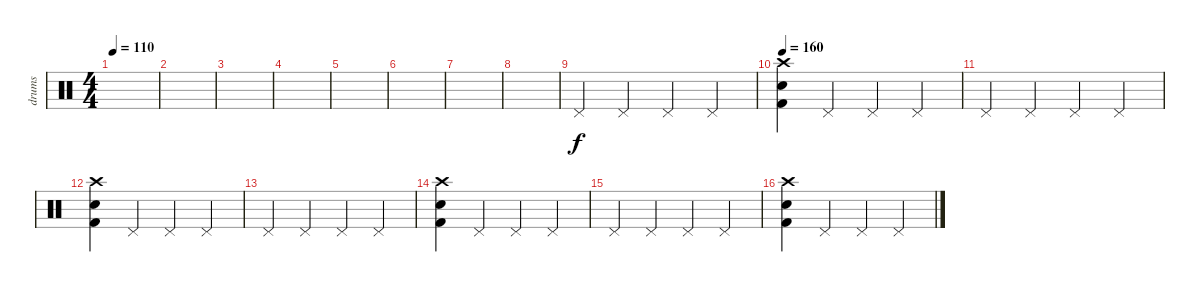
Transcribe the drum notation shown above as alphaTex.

\track ("drums" "drums") {instrument percussion}
\staff {score}
\articulation defaults
\ts (4 4)
\tempo 110
\clef neutral
\ks c
|
|
|
|
|
|
|
|
"Pedal Hi-Hat (hit)".4 "Pedal Hi-Hat (hit)".4 "Pedal Hi-Hat (hit)".4 "Pedal Hi-Hat (hit)".4 |
\tempo 160
("Crash high (hit)" "Electric Snare (hit)" "Kick (hit) 2").4 "Pedal Hi-Hat (hit)".4 "Pedal Hi-Hat (hit)".4 "Pedal Hi-Hat (hit)".4 |
"Pedal Hi-Hat (hit)".4 "Pedal Hi-Hat (hit)".4 "Pedal Hi-Hat (hit)".4 "Pedal Hi-Hat (hit)".4 |
("Crash high (hit)" "Electric Snare (hit)" "Kick (hit) 2").4 "Pedal Hi-Hat (hit)".4 "Pedal Hi-Hat (hit)".4 "Pedal Hi-Hat (hit)".4 |
"Pedal Hi-Hat (hit)".4 "Pedal Hi-Hat (hit)".4 "Pedal Hi-Hat (hit)".4 "Pedal Hi-Hat (hit)".4 |
("Crash high (hit)" "Electric Snare (hit)" "Kick (hit) 2").4 "Pedal Hi-Hat (hit)".4 "Pedal Hi-Hat (hit)".4 "Pedal Hi-Hat (hit)".4 |
"Pedal Hi-Hat (hit)".4 "Pedal Hi-Hat (hit)".4 "Pedal Hi-Hat (hit)".4 "Pedal Hi-Hat (hit)".4 |
("Crash high (hit)" "Electric Snare (hit)" "Kick (hit) 2").4 "Pedal Hi-Hat (hit)".4 "Pedal Hi-Hat (hit)".4 "Pedal Hi-Hat (hit)".4
